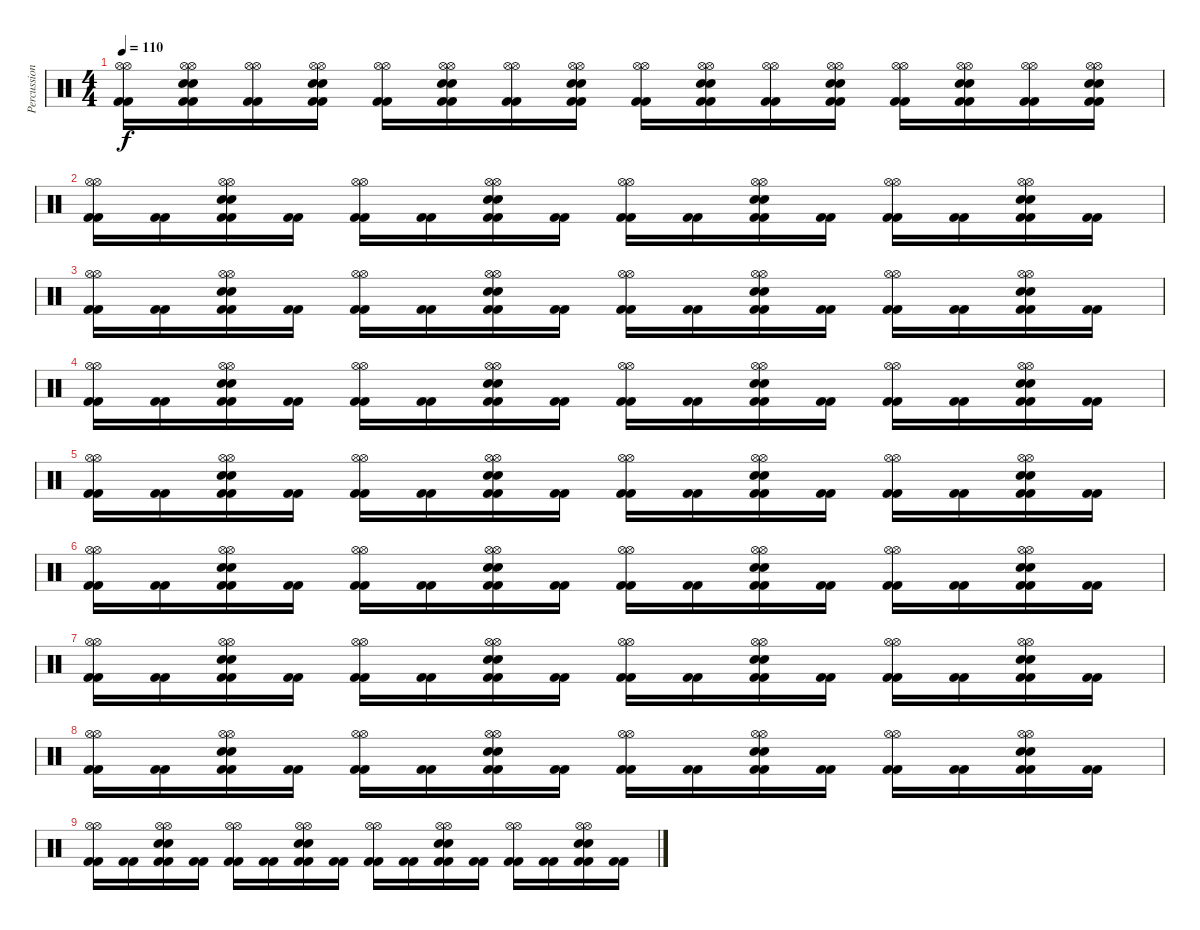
\track ("Percussion" "Percussion") {instrument percussion}
\staff {score}
\articulation defaults
\ts (4 4)
\tempo 110
\clef neutral
\ks c
("Hi-Hat (open)" "Hi-Hat (open)" "Kick (hit) 2" "Kick (hit) 2").16{dy f} ("Hi-Hat (open)" "Hi-Hat (open)" "Electric Snare (hit)" "Electric Snare (hit)" "Kick (hit) 2" "Kick (hit) 2").16 ("Hi-Hat (open)" "Hi-Hat (open)" "Kick (hit) 2" "Kick (hit) 2").16 ("Hi-Hat (open)" "Hi-Hat (open)" "Electric Snare (hit)" "Electric Snare (hit)" "Kick (hit) 2" "Kick (hit) 2").16 ("Hi-Hat (open)" "Hi-Hat (open)" "Kick (hit) 2" "Kick (hit) 2").16 ("Hi-Hat (open)" "Hi-Hat (open)" "Electric Snare (hit)" "Electric Snare (hit)" "Kick (hit) 2" "Kick (hit) 2").16 ("Hi-Hat (open)" "Hi-Hat (open)" "Kick (hit) 2" "Kick (hit) 2").16 ("Hi-Hat (open)" "Hi-Hat (open)" "Electric Snare (hit)" "Electric Snare (hit)" "Kick (hit) 2" "Kick (hit) 2").16 ("Hi-Hat (open)" "Hi-Hat (open)" "Kick (hit) 2" "Kick (hit) 2").16 ("Hi-Hat (open)" "Hi-Hat (open)" "Electric Snare (hit)" "Electric Snare (hit)" "Kick (hit) 2" "Kick (hit) 2").16 ("Hi-Hat (open)" "Hi-Hat (open)" "Kick (hit) 2" "Kick (hit) 2").16 ("Hi-Hat (open)" "Hi-Hat (open)" "Electric Snare (hit)" "Electric Snare (hit)" "Kick (hit) 2" "Kick (hit) 2").16 ("Hi-Hat (open)" "Hi-Hat (open)" "Kick (hit) 2" "Kick (hit) 2").16 ("Hi-Hat (open)" "Hi-Hat (open)" "Electric Snare (hit)" "Electric Snare (hit)" "Kick (hit) 2" "Kick (hit) 2").16 ("Hi-Hat (open)" "Hi-Hat (open)" "Kick (hit) 2" "Kick (hit) 2").16 ("Hi-Hat (open)" "Hi-Hat (open)" "Electric Snare (hit)" "Electric Snare (hit)" "Kick (hit) 2" "Kick (hit) 2").16 |
("Hi-Hat (open)" "Hi-Hat (open)" "Kick (hit) 2" "Kick (hit) 2").16 ("Kick (hit) 2" "Kick (hit) 2").16 ("Electric Snare (hit)" "Electric Snare (hit)" "Hi-Hat (open)" "Hi-Hat (open)" "Kick (hit) 2" "Kick (hit) 2").16 ("Kick (hit) 2" "Kick (hit) 2").16 ("Hi-Hat (open)" "Hi-Hat (open)" "Kick (hit) 2" "Kick (hit) 2").16 ("Kick (hit) 2" "Kick (hit) 2").16 ("Electric Snare (hit)" "Electric Snare (hit)" "Hi-Hat (open)" "Hi-Hat (open)" "Kick (hit) 2" "Kick (hit) 2").16 ("Kick (hit) 2" "Kick (hit) 2").16 ("Hi-Hat (open)" "Hi-Hat (open)" "Kick (hit) 2" "Kick (hit) 2").16 ("Kick (hit) 2" "Kick (hit) 2").16 ("Electric Snare (hit)" "Electric Snare (hit)" "Hi-Hat (open)" "Hi-Hat (open)" "Kick (hit) 2" "Kick (hit) 2").16 ("Kick (hit) 2" "Kick (hit) 2").16 ("Hi-Hat (open)" "Hi-Hat (open)" "Kick (hit) 2" "Kick (hit) 2").16 ("Kick (hit) 2" "Kick (hit) 2").16 ("Electric Snare (hit)" "Electric Snare (hit)" "Hi-Hat (open)" "Hi-Hat (open)" "Kick (hit) 2" "Kick (hit) 2").16 ("Kick (hit) 2" "Kick (hit) 2").16 |
("Hi-Hat (open)" "Hi-Hat (open)" "Kick (hit) 2" "Kick (hit) 2").16 ("Kick (hit) 2" "Kick (hit) 2").16 ("Electric Snare (hit)" "Electric Snare (hit)" "Hi-Hat (open)" "Hi-Hat (open)" "Kick (hit) 2" "Kick (hit) 2").16 ("Kick (hit) 2" "Kick (hit) 2").16 ("Hi-Hat (open)" "Hi-Hat (open)" "Kick (hit) 2" "Kick (hit) 2").16 ("Kick (hit) 2" "Kick (hit) 2").16 ("Electric Snare (hit)" "Electric Snare (hit)" "Hi-Hat (open)" "Hi-Hat (open)" "Kick (hit) 2" "Kick (hit) 2").16 ("Kick (hit) 2" "Kick (hit) 2").16 ("Hi-Hat (open)" "Hi-Hat (open)" "Kick (hit) 2" "Kick (hit) 2").16 ("Kick (hit) 2" "Kick (hit) 2").16 ("Electric Snare (hit)" "Electric Snare (hit)" "Hi-Hat (open)" "Hi-Hat (open)" "Kick (hit) 2" "Kick (hit) 2").16 ("Kick (hit) 2" "Kick (hit) 2").16 ("Hi-Hat (open)" "Hi-Hat (open)" "Kick (hit) 2" "Kick (hit) 2").16 ("Kick (hit) 2" "Kick (hit) 2").16 ("Electric Snare (hit)" "Electric Snare (hit)" "Hi-Hat (open)" "Hi-Hat (open)" "Kick (hit) 2" "Kick (hit) 2").16 ("Kick (hit) 2" "Kick (hit) 2").16 |
("Hi-Hat (open)" "Hi-Hat (open)" "Kick (hit) 2" "Kick (hit) 2").16 ("Kick (hit) 2" "Kick (hit) 2").16 ("Electric Snare (hit)" "Electric Snare (hit)" "Hi-Hat (open)" "Hi-Hat (open)" "Kick (hit) 2" "Kick (hit) 2").16 ("Kick (hit) 2" "Kick (hit) 2").16 ("Hi-Hat (open)" "Hi-Hat (open)" "Kick (hit) 2" "Kick (hit) 2").16 ("Kick (hit) 2" "Kick (hit) 2").16 ("Electric Snare (hit)" "Electric Snare (hit)" "Hi-Hat (open)" "Hi-Hat (open)" "Kick (hit) 2" "Kick (hit) 2").16 ("Kick (hit) 2" "Kick (hit) 2").16 ("Hi-Hat (open)" "Hi-Hat (open)" "Kick (hit) 2" "Kick (hit) 2").16 ("Kick (hit) 2" "Kick (hit) 2").16 ("Electric Snare (hit)" "Electric Snare (hit)" "Hi-Hat (open)" "Hi-Hat (open)" "Kick (hit) 2" "Kick (hit) 2").16 ("Kick (hit) 2" "Kick (hit) 2").16 ("Hi-Hat (open)" "Hi-Hat (open)" "Kick (hit) 2" "Kick (hit) 2").16 ("Kick (hit) 2" "Kick (hit) 2").16 ("Electric Snare (hit)" "Electric Snare (hit)" "Hi-Hat (open)" "Hi-Hat (open)" "Kick (hit) 2" "Kick (hit) 2").16 ("Kick (hit) 2" "Kick (hit) 2").16 |
("Hi-Hat (open)" "Hi-Hat (open)" "Kick (hit) 2" "Kick (hit) 2").16 ("Kick (hit) 2" "Kick (hit) 2").16 ("Electric Snare (hit)" "Electric Snare (hit)" "Hi-Hat (open)" "Hi-Hat (open)" "Kick (hit) 2" "Kick (hit) 2").16 ("Kick (hit) 2" "Kick (hit) 2").16 ("Hi-Hat (open)" "Hi-Hat (open)" "Kick (hit) 2" "Kick (hit) 2").16 ("Kick (hit) 2" "Kick (hit) 2").16 ("Electric Snare (hit)" "Electric Snare (hit)" "Hi-Hat (open)" "Hi-Hat (open)" "Kick (hit) 2" "Kick (hit) 2").16 ("Kick (hit) 2" "Kick (hit) 2").16 ("Hi-Hat (open)" "Hi-Hat (open)" "Kick (hit) 2" "Kick (hit) 2").16 ("Kick (hit) 2" "Kick (hit) 2").16 ("Electric Snare (hit)" "Electric Snare (hit)" "Hi-Hat (open)" "Hi-Hat (open)" "Kick (hit) 2" "Kick (hit) 2").16 ("Kick (hit) 2" "Kick (hit) 2").16 ("Hi-Hat (open)" "Hi-Hat (open)" "Kick (hit) 2" "Kick (hit) 2").16 ("Kick (hit) 2" "Kick (hit) 2").16 ("Electric Snare (hit)" "Electric Snare (hit)" "Hi-Hat (open)" "Hi-Hat (open)" "Kick (hit) 2" "Kick (hit) 2").16 ("Kick (hit) 2" "Kick (hit) 2").16 |
("Hi-Hat (open)" "Hi-Hat (open)" "Kick (hit) 2" "Kick (hit) 2").16 ("Kick (hit) 2" "Kick (hit) 2").16 ("Electric Snare (hit)" "Electric Snare (hit)" "Hi-Hat (open)" "Hi-Hat (open)" "Kick (hit) 2" "Kick (hit) 2").16 ("Kick (hit) 2" "Kick (hit) 2").16 ("Hi-Hat (open)" "Hi-Hat (open)" "Kick (hit) 2" "Kick (hit) 2").16 ("Kick (hit) 2" "Kick (hit) 2").16 ("Electric Snare (hit)" "Electric Snare (hit)" "Hi-Hat (open)" "Hi-Hat (open)" "Kick (hit) 2" "Kick (hit) 2").16 ("Kick (hit) 2" "Kick (hit) 2").16 ("Hi-Hat (open)" "Hi-Hat (open)" "Kick (hit) 2" "Kick (hit) 2").16 ("Kick (hit) 2" "Kick (hit) 2").16 ("Electric Snare (hit)" "Electric Snare (hit)" "Hi-Hat (open)" "Hi-Hat (open)" "Kick (hit) 2" "Kick (hit) 2").16 ("Kick (hit) 2" "Kick (hit) 2").16 ("Hi-Hat (open)" "Hi-Hat (open)" "Kick (hit) 2" "Kick (hit) 2").16 ("Kick (hit) 2" "Kick (hit) 2").16 ("Electric Snare (hit)" "Electric Snare (hit)" "Hi-Hat (open)" "Hi-Hat (open)" "Kick (hit) 2" "Kick (hit) 2").16 ("Kick (hit) 2" "Kick (hit) 2").16 |
("Hi-Hat (open)" "Hi-Hat (open)" "Kick (hit) 2" "Kick (hit) 2").16 ("Kick (hit) 2" "Kick (hit) 2").16 ("Electric Snare (hit)" "Electric Snare (hit)" "Hi-Hat (open)" "Hi-Hat (open)" "Kick (hit) 2" "Kick (hit) 2").16 ("Kick (hit) 2" "Kick (hit) 2").16 ("Hi-Hat (open)" "Hi-Hat (open)" "Kick (hit) 2" "Kick (hit) 2").16 ("Kick (hit) 2" "Kick (hit) 2").16 ("Electric Snare (hit)" "Electric Snare (hit)" "Hi-Hat (open)" "Hi-Hat (open)" "Kick (hit) 2" "Kick (hit) 2").16 ("Kick (hit) 2" "Kick (hit) 2").16 ("Hi-Hat (open)" "Hi-Hat (open)" "Kick (hit) 2" "Kick (hit) 2").16 ("Kick (hit) 2" "Kick (hit) 2").16 ("Electric Snare (hit)" "Electric Snare (hit)" "Hi-Hat (open)" "Hi-Hat (open)" "Kick (hit) 2" "Kick (hit) 2").16 ("Kick (hit) 2" "Kick (hit) 2").16 ("Hi-Hat (open)" "Hi-Hat (open)" "Kick (hit) 2" "Kick (hit) 2").16 ("Kick (hit) 2" "Kick (hit) 2").16 ("Electric Snare (hit)" "Electric Snare (hit)" "Hi-Hat (open)" "Hi-Hat (open)" "Kick (hit) 2" "Kick (hit) 2").16 ("Kick (hit) 2" "Kick (hit) 2").16 |
("Hi-Hat (open)" "Hi-Hat (open)" "Kick (hit) 2" "Kick (hit) 2").16 ("Kick (hit) 2" "Kick (hit) 2").16 ("Electric Snare (hit)" "Electric Snare (hit)" "Hi-Hat (open)" "Hi-Hat (open)" "Kick (hit) 2" "Kick (hit) 2").16 ("Kick (hit) 2" "Kick (hit) 2").16 ("Hi-Hat (open)" "Hi-Hat (open)" "Kick (hit) 2" "Kick (hit) 2").16 ("Kick (hit) 2" "Kick (hit) 2").16 ("Electric Snare (hit)" "Electric Snare (hit)" "Hi-Hat (open)" "Hi-Hat (open)" "Kick (hit) 2" "Kick (hit) 2").16 ("Kick (hit) 2" "Kick (hit) 2").16 ("Hi-Hat (open)" "Hi-Hat (open)" "Kick (hit) 2" "Kick (hit) 2").16 ("Kick (hit) 2" "Kick (hit) 2").16 ("Electric Snare (hit)" "Electric Snare (hit)" "Hi-Hat (open)" "Hi-Hat (open)" "Kick (hit) 2" "Kick (hit) 2").16 ("Kick (hit) 2" "Kick (hit) 2").16 ("Hi-Hat (open)" "Hi-Hat (open)" "Kick (hit) 2" "Kick (hit) 2").16 ("Kick (hit) 2" "Kick (hit) 2").16 ("Electric Snare (hit)" "Electric Snare (hit)" "Hi-Hat (open)" "Hi-Hat (open)" "Kick (hit) 2" "Kick (hit) 2").16 ("Kick (hit) 2" "Kick (hit) 2").16 |
("Hi-Hat (open)" "Hi-Hat (open)" "Kick (hit) 2" "Kick (hit) 2").16 ("Kick (hit) 2" "Kick (hit) 2").16 ("Electric Snare (hit)" "Electric Snare (hit)" "Hi-Hat (open)" "Hi-Hat (open)" "Kick (hit) 2" "Kick (hit) 2").16 ("Kick (hit) 2" "Kick (hit) 2").16 ("Hi-Hat (open)" "Hi-Hat (open)" "Kick (hit) 2" "Kick (hit) 2").16 ("Kick (hit) 2" "Kick (hit) 2").16 ("Electric Snare (hit)" "Electric Snare (hit)" "Hi-Hat (open)" "Hi-Hat (open)" "Kick (hit) 2" "Kick (hit) 2").16 ("Kick (hit) 2" "Kick (hit) 2").16 ("Hi-Hat (open)" "Hi-Hat (open)" "Kick (hit) 2" "Kick (hit) 2").16 ("Kick (hit) 2" "Kick (hit) 2").16 ("Electric Snare (hit)" "Electric Snare (hit)" "Hi-Hat (open)" "Hi-Hat (open)" "Kick (hit) 2" "Kick (hit) 2").16 ("Kick (hit) 2" "Kick (hit) 2").16 ("Hi-Hat (open)" "Hi-Hat (open)" "Kick (hit) 2" "Kick (hit) 2").16 ("Kick (hit) 2" "Kick (hit) 2").16 ("Electric Snare (hit)" "Electric Snare (hit)" "Hi-Hat (open)" "Hi-Hat (open)" "Kick (hit) 2" "Kick (hit) 2").16 ("Kick (hit) 2" "Kick (hit) 2").16
